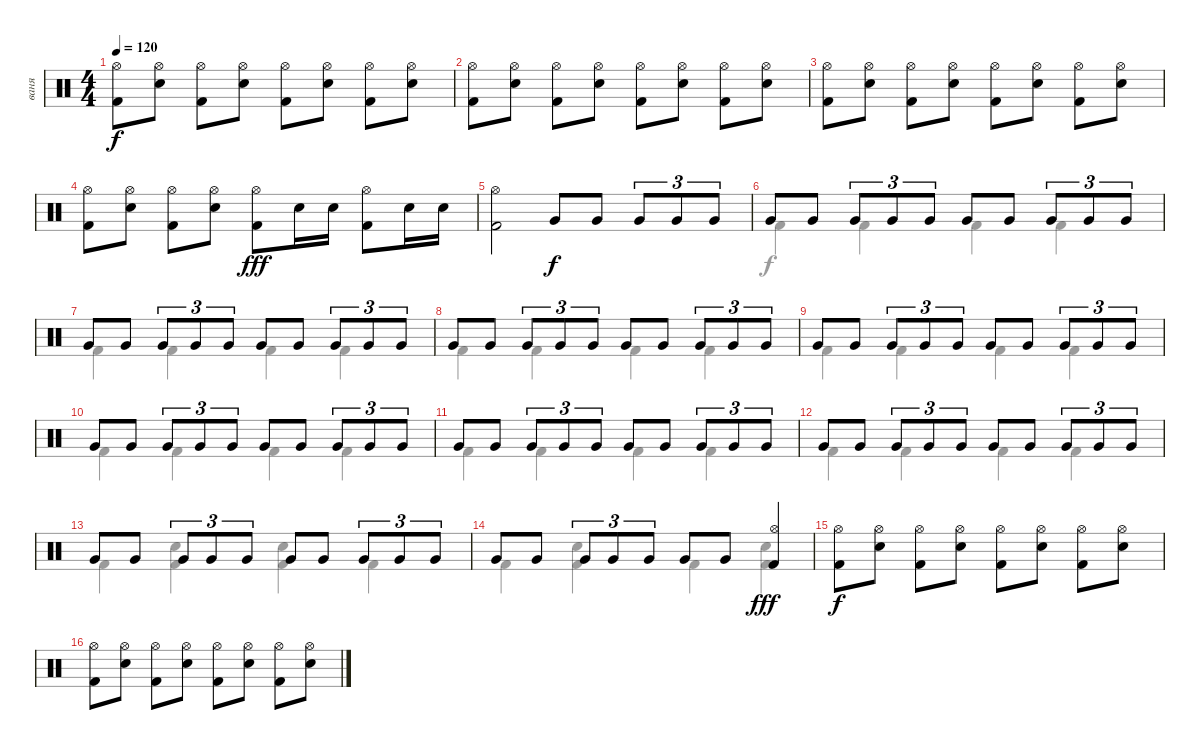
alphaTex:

\track ("ваня" "ваня") {instrument percussion}
\staff {score}
\articulation defaults
\voice
\ts (4 4)
\tempo 120
\clef neutral
\ks c
("Hi-Hat (open)" "Kick (hit) 2").8{dy f} ("Hi-Hat (open)" "Electric Snare (hit)").8 ("Hi-Hat (open)" "Kick (hit) 2").8 ("Hi-Hat (open)" "Electric Snare (hit)").8 ("Hi-Hat (open)" "Kick (hit) 2").8 ("Hi-Hat (open)" "Electric Snare (hit)").8 ("Hi-Hat (open)" "Kick (hit) 2").8 ("Hi-Hat (open)" "Electric Snare (hit)").8 |
("Hi-Hat (open)" "Kick (hit) 2").8 ("Hi-Hat (open)" "Electric Snare (hit)").8 ("Hi-Hat (open)" "Kick (hit) 2").8 ("Hi-Hat (open)" "Electric Snare (hit)").8 ("Hi-Hat (open)" "Kick (hit) 2").8 ("Hi-Hat (open)" "Electric Snare (hit)").8 ("Hi-Hat (open)" "Kick (hit) 2").8 ("Hi-Hat (open)" "Electric Snare (hit)").8 |
("Hi-Hat (open)" "Kick (hit) 2").8 ("Hi-Hat (open)" "Electric Snare (hit)").8 ("Hi-Hat (open)" "Kick (hit) 2").8 ("Hi-Hat (open)" "Electric Snare (hit)").8 ("Hi-Hat (open)" "Kick (hit) 2").8 ("Hi-Hat (open)" "Electric Snare (hit)").8 ("Hi-Hat (open)" "Kick (hit) 2").8 ("Hi-Hat (open)" "Electric Snare (hit)").8 |
("Hi-Hat (open)" "Kick (hit) 2").8 ("Hi-Hat (open)" "Electric Snare (hit)").8 ("Hi-Hat (open)" "Kick (hit) 2").8 ("Hi-Hat (open)" "Electric Snare (hit)").8 ("Hi-Hat (open)" "Kick (hit) 2").8{dy fff} "Electric Snare (hit)".16 "Electric Snare (hit)".16 ("Hi-Hat (open)" "Kick (hit) 2").8 "Electric Snare (hit)".16 "Electric Snare (hit)".16 |
("Hi-Hat (open)" "Kick (hit) 2").2 "Very Low Tom (hit)".8{dy f} "Very Low Tom (hit)".8 "Very Low Tom (hit)".8{tu (3 2)} "Very Low Tom (hit)".8{tu (3 2)} "Very Low Tom (hit)".8{tu (3 2)} |
"Very Low Tom (hit)".8 "Very Low Tom (hit)".8 "Very Low Tom (hit)".8{tu (3 2)} "Very Low Tom (hit)".8{tu (3 2)} "Very Low Tom (hit)".8{tu (3 2)} "Very Low Tom (hit)".8 "Very Low Tom (hit)".8 "Very Low Tom (hit)".8{tu (3 2)} "Very Low Tom (hit)".8{tu (3 2)} "Very Low Tom (hit)".8{tu (3 2)} |
"Very Low Tom (hit)".8 "Very Low Tom (hit)".8 "Very Low Tom (hit)".8{tu (3 2)} "Very Low Tom (hit)".8{tu (3 2)} "Very Low Tom (hit)".8{tu (3 2)} "Very Low Tom (hit)".8 "Very Low Tom (hit)".8 "Very Low Tom (hit)".8{tu (3 2)} "Very Low Tom (hit)".8{tu (3 2)} "Very Low Tom (hit)".8{tu (3 2)} |
"Very Low Tom (hit)".8 "Very Low Tom (hit)".8 "Very Low Tom (hit)".8{tu (3 2)} "Very Low Tom (hit)".8{tu (3 2)} "Very Low Tom (hit)".8{tu (3 2)} "Very Low Tom (hit)".8 "Very Low Tom (hit)".8 "Very Low Tom (hit)".8{tu (3 2)} "Very Low Tom (hit)".8{tu (3 2)} "Very Low Tom (hit)".8{tu (3 2)} |
"Very Low Tom (hit)".8 "Very Low Tom (hit)".8 "Very Low Tom (hit)".8{tu (3 2)} "Very Low Tom (hit)".8{tu (3 2)} "Very Low Tom (hit)".8{tu (3 2)} "Very Low Tom (hit)".8 "Very Low Tom (hit)".8 "Very Low Tom (hit)".8{tu (3 2)} "Very Low Tom (hit)".8{tu (3 2)} "Very Low Tom (hit)".8{tu (3 2)} |
"Very Low Tom (hit)".8 "Very Low Tom (hit)".8 "Very Low Tom (hit)".8{tu (3 2)} "Very Low Tom (hit)".8{tu (3 2)} "Very Low Tom (hit)".8{tu (3 2)} "Very Low Tom (hit)".8 "Very Low Tom (hit)".8 "Very Low Tom (hit)".8{tu (3 2)} "Very Low Tom (hit)".8{tu (3 2)} "Very Low Tom (hit)".8{tu (3 2)} |
"Very Low Tom (hit)".8 "Very Low Tom (hit)".8 "Very Low Tom (hit)".8{tu (3 2)} "Very Low Tom (hit)".8{tu (3 2)} "Very Low Tom (hit)".8{tu (3 2)} "Very Low Tom (hit)".8 "Very Low Tom (hit)".8 "Very Low Tom (hit)".8{tu (3 2)} "Very Low Tom (hit)".8{tu (3 2)} "Very Low Tom (hit)".8{tu (3 2)} |
"Very Low Tom (hit)".8 "Very Low Tom (hit)".8 "Very Low Tom (hit)".8{tu (3 2)} "Very Low Tom (hit)".8{tu (3 2)} "Very Low Tom (hit)".8{tu (3 2)} "Very Low Tom (hit)".8 "Very Low Tom (hit)".8 "Very Low Tom (hit)".8{tu (3 2)} "Very Low Tom (hit)".8{tu (3 2)} "Very Low Tom (hit)".8{tu (3 2)} |
"Very Low Tom (hit)".8 "Very Low Tom (hit)".8 "Very Low Tom (hit)".8{tu (3 2)} "Very Low Tom (hit)".8{tu (3 2)} "Very Low Tom (hit)".8{tu (3 2)} "Very Low Tom (hit)".8 "Very Low Tom (hit)".8 "Very Low Tom (hit)".8{tu (3 2)} "Very Low Tom (hit)".8{tu (3 2)} "Very Low Tom (hit)".8{tu (3 2)} |
"Very Low Tom (hit)".8 "Very Low Tom (hit)".8 "Very Low Tom (hit)".8{tu (3 2)} "Very Low Tom (hit)".8{tu (3 2)} "Very Low Tom (hit)".8{tu (3 2)} "Very Low Tom (hit)".8 "Very Low Tom (hit)".8 ("Hi-Hat (open)" "Kick (hit) 2").4{dy fff} |
("Hi-Hat (open)" "Kick (hit) 2").8{dy f} ("Hi-Hat (open)" "Electric Snare (hit)").8 ("Hi-Hat (open)" "Kick (hit) 2").8 ("Hi-Hat (open)" "Electric Snare (hit)").8 ("Hi-Hat (open)" "Kick (hit) 2").8 ("Hi-Hat (open)" "Electric Snare (hit)").8 ("Hi-Hat (open)" "Kick (hit) 2").8 ("Hi-Hat (open)" "Electric Snare (hit)").8 |
("Hi-Hat (open)" "Kick (hit) 2").8 ("Hi-Hat (open)" "Electric Snare (hit)").8 ("Hi-Hat (open)" "Kick (hit) 2").8 ("Hi-Hat (open)" "Electric Snare (hit)").8 ("Hi-Hat (open)" "Kick (hit) 2").8 ("Hi-Hat (open)" "Electric Snare (hit)").8 ("Hi-Hat (open)" "Kick (hit) 2").8 ("Hi-Hat (open)" "Electric Snare (hit)").8
\voice
\clef neutral
\ottava regular
\simile none
\ks c
|
|
|
|
|
"Kick (hit) 2".4 "Kick (hit) 2".4 "Kick (hit) 2".4 "Kick (hit) 2".4 |
"Kick (hit) 2".4 "Kick (hit) 2".4 "Kick (hit) 2".4 "Kick (hit) 2".4 |
"Kick (hit) 2".4 "Kick (hit) 2".4 "Kick (hit) 2".4 "Kick (hit) 2".4 |
"Kick (hit) 2".4 "Kick (hit) 2".4 "Kick (hit) 2".4 "Kick (hit) 2".4 |
"Kick (hit) 2".4 "Kick (hit) 2".4 "Kick (hit) 2".4 "Kick (hit) 2".4 |
"Kick (hit) 2".4 "Kick (hit) 2".4 "Kick (hit) 2".4 "Kick (hit) 2".4 |
"Kick (hit) 2".4 "Kick (hit) 2".4 "Kick (hit) 2".4 "Kick (hit) 2".4 |
"Kick (hit) 2".4 ("Kick (hit) 2" "Electric Snare (hit)").4 ("Kick (hit) 2" "Electric Snare (hit)").4 "Kick (hit) 2".4 |
"Kick (hit) 2".4 ("Kick (hit) 2" "Electric Snare (hit)").4 "Kick (hit) 2".4 ("Kick (hit) 2" "Electric Snare (hit)").4 |
|
